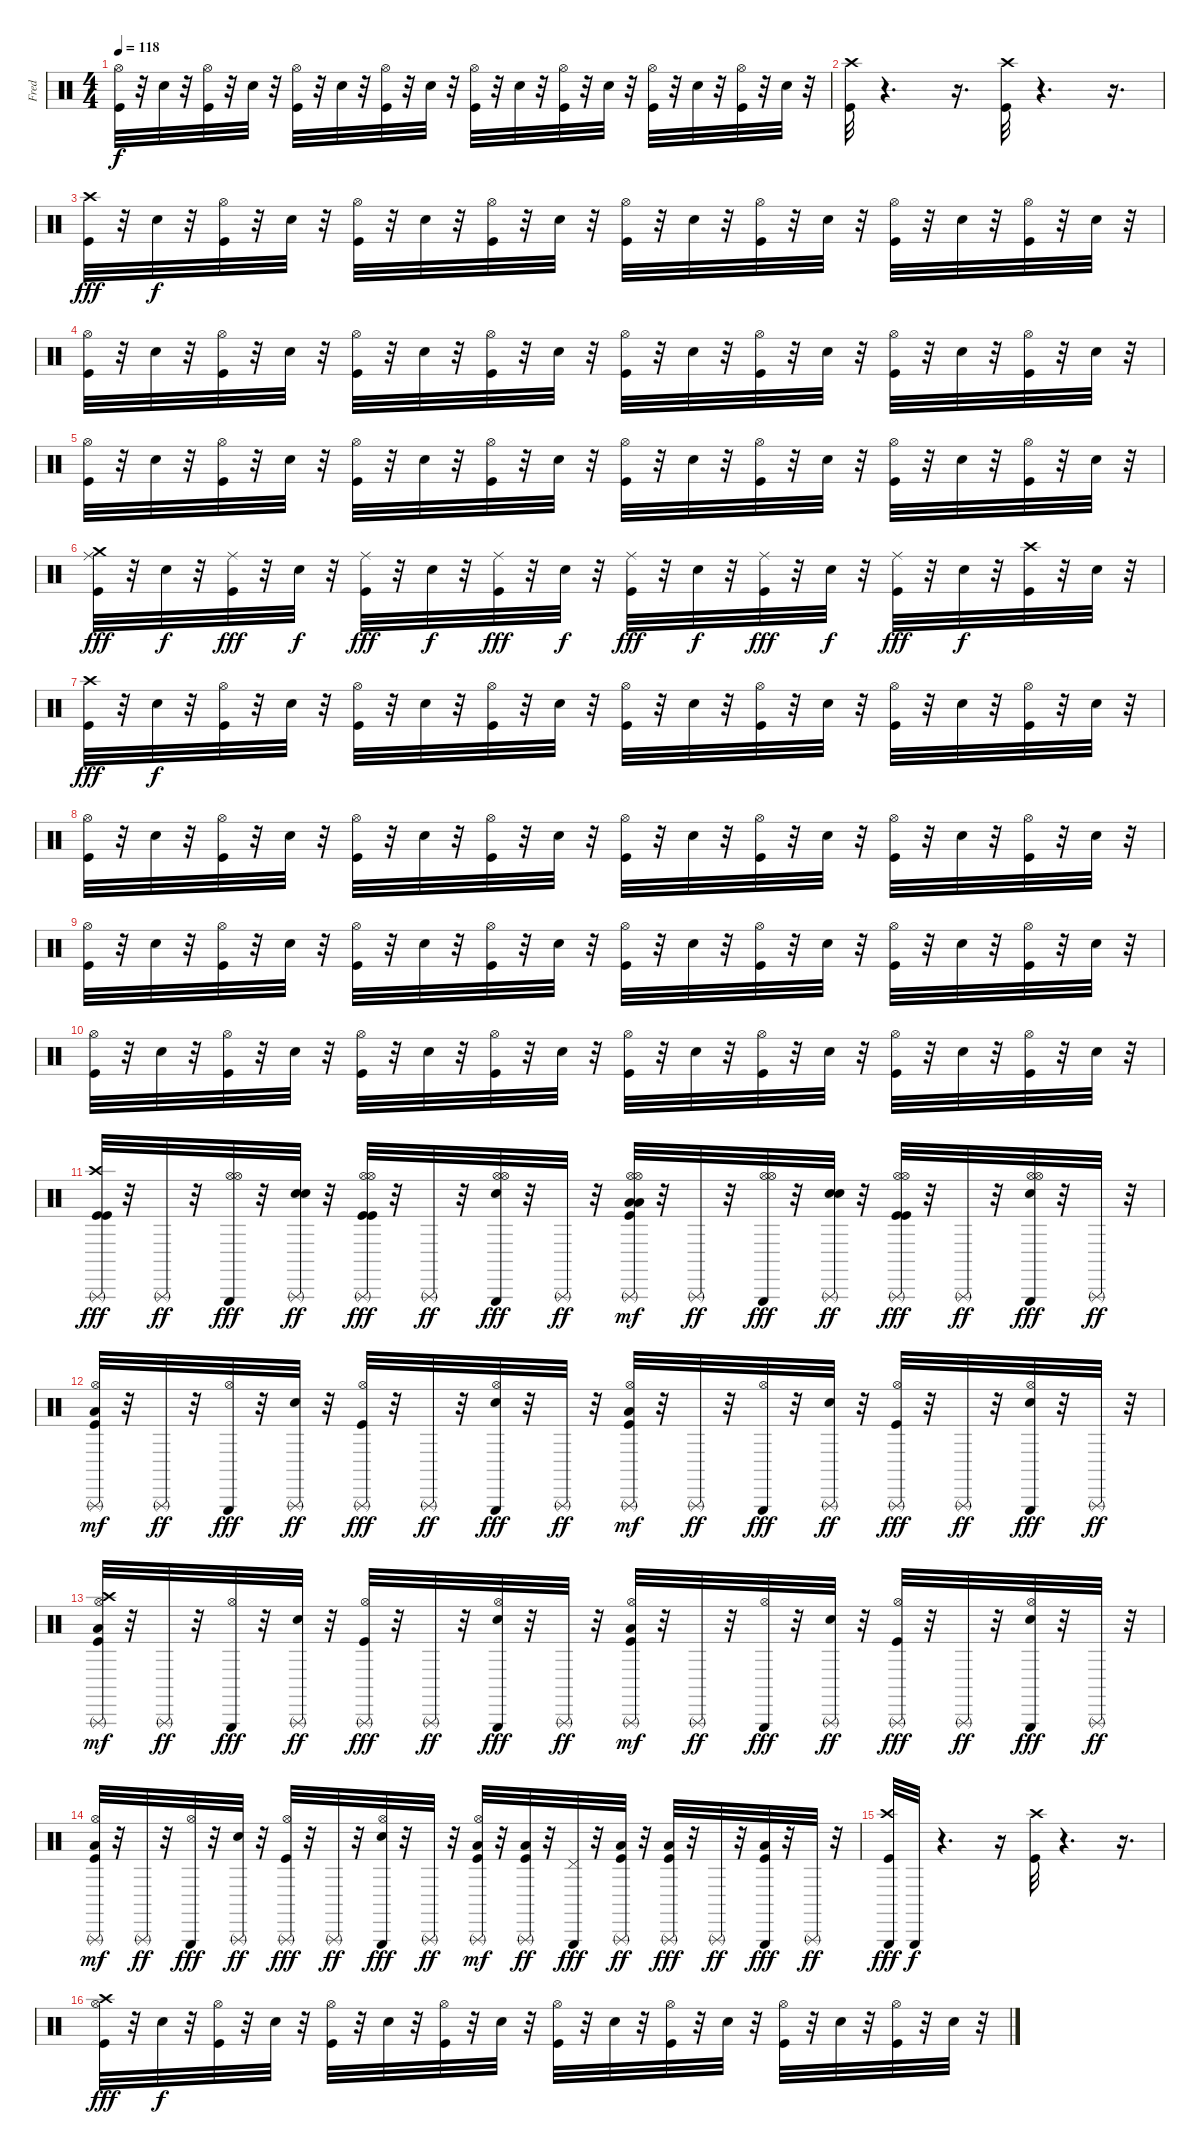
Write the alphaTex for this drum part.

\track ("Fred" "Fred") {instrument percussion}
\staff {score}
\articulation defaults
\ts (4 4)
\tempo 118
\clef neutral
\ks c
("Hi-Hat (open)" "Kick (hit)").32{dy f} r.32 "Electric Snare (hit)".32 r.32 ("Hi-Hat (open)" "Kick (hit)").32 r.32 "Electric Snare (hit)".32 r.32 ("Hi-Hat (open)" "Kick (hit)").32 r.32 "Electric Snare (hit)".32 r.32 ("Hi-Hat (open)" "Kick (hit)").32 r.32 "Electric Snare (hit)".32 r.32 ("Hi-Hat (open)" "Kick (hit)").32 r.32 "Electric Snare (hit)".32 r.32 ("Hi-Hat (open)" "Kick (hit)").32 r.32 "Electric Snare (hit)".32 r.32 ("Hi-Hat (open)" "Kick (hit)").32 r.32 "Electric Snare (hit)".32 r.32 ("Hi-Hat (open)" "Kick (hit)").32 r.32 "Electric Snare (hit)".32 r.32 |
("Crash high (hit)" "Kick (hit)").32 r.4{d} r.16{d} ("Crash high (hit)" "Kick (hit)").32 r.4{d} r.16{d} |
("Crash high (hit)" "Kick (hit)").32{dy fff} r.32 "Electric Snare (hit)".32{dy f} r.32 ("Hi-Hat (open)" "Kick (hit)").32 r.32 "Electric Snare (hit)".32 r.32 ("Hi-Hat (open)" "Kick (hit)").32 r.32 "Electric Snare (hit)".32 r.32 ("Hi-Hat (open)" "Kick (hit)").32 r.32 "Electric Snare (hit)".32 r.32 ("Hi-Hat (open)" "Kick (hit)").32 r.32 "Electric Snare (hit)".32 r.32 ("Hi-Hat (open)" "Kick (hit)").32 r.32 "Electric Snare (hit)".32 r.32 ("Hi-Hat (open)" "Kick (hit)").32 r.32 "Electric Snare (hit)".32 r.32 ("Hi-Hat (open)" "Kick (hit)").32 r.32 "Electric Snare (hit)".32 r.32 |
("Hi-Hat (open)" "Kick (hit)").32 r.32 "Electric Snare (hit)".32 r.32 ("Hi-Hat (open)" "Kick (hit)").32 r.32 "Electric Snare (hit)".32 r.32 ("Hi-Hat (open)" "Kick (hit)").32 r.32 "Electric Snare (hit)".32 r.32 ("Hi-Hat (open)" "Kick (hit)").32 r.32 "Electric Snare (hit)".32 r.32 ("Hi-Hat (open)" "Kick (hit)").32 r.32 "Electric Snare (hit)".32 r.32 ("Hi-Hat (open)" "Kick (hit)").32 r.32 "Electric Snare (hit)".32 r.32 ("Hi-Hat (open)" "Kick (hit)").32 r.32 "Electric Snare (hit)".32 r.32 ("Hi-Hat (open)" "Kick (hit)").32 r.32 "Electric Snare (hit)".32 r.32 |
("Hi-Hat (open)" "Kick (hit)").32 r.32 "Electric Snare (hit)".32 r.32 ("Hi-Hat (open)" "Kick (hit)").32 r.32 "Electric Snare (hit)".32 r.32 ("Hi-Hat (open)" "Kick (hit)").32 r.32 "Electric Snare (hit)".32 r.32 ("Hi-Hat (open)" "Kick (hit)").32 r.32 "Electric Snare (hit)".32 r.32 ("Hi-Hat (open)" "Kick (hit)").32 r.32 "Electric Snare (hit)".32 r.32 ("Hi-Hat (open)" "Kick (hit)").32 r.32 "Electric Snare (hit)".32 r.32 ("Hi-Hat (open)" "Kick (hit)").32 r.32 "Electric Snare (hit)".32 r.32 ("Hi-Hat (open)" "Kick (hit)").32 r.32 "Electric Snare (hit)".32 r.32 |
("Crash medium (hit)" "Ride (middle)" "Kick (hit)").32{dy fff} r.32 "Electric Snare (hit)".32{dy f} r.32 ("Ride (middle)" "Kick (hit)").32{dy fff} r.32 "Electric Snare (hit)".32{dy f} r.32 ("Ride (middle)" "Kick (hit)").32{dy fff} r.32 "Electric Snare (hit)".32{dy f} r.32 ("Ride (middle)" "Kick (hit)").32{dy fff} r.32 "Electric Snare (hit)".32{dy f} r.32 ("Ride (middle)" "Kick (hit)").32{dy fff} r.32 "Electric Snare (hit)".32{dy f} r.32 ("Ride (middle)" "Kick (hit)").32{dy fff} r.32 "Electric Snare (hit)".32{dy f} r.32 ("Ride (middle)" "Kick (hit)").32{dy fff} r.32 "Electric Snare (hit)".32{dy f} r.32 ("Crash high (hit)" "Kick (hit)").32 r.32 "Electric Snare (hit)".32 r.32 |
("Crash high (hit)" "Kick (hit)").32{dy fff} r.32 "Electric Snare (hit)".32{dy f} r.32 ("Hi-Hat (open)" "Kick (hit)").32 r.32 "Electric Snare (hit)".32 r.32 ("Hi-Hat (open)" "Kick (hit)").32 r.32 "Electric Snare (hit)".32 r.32 ("Hi-Hat (open)" "Kick (hit)").32 r.32 "Electric Snare (hit)".32 r.32 ("Hi-Hat (open)" "Kick (hit)").32 r.32 "Electric Snare (hit)".32 r.32 ("Hi-Hat (open)" "Kick (hit)").32 r.32 "Electric Snare (hit)".32 r.32 ("Hi-Hat (open)" "Kick (hit)").32 r.32 "Electric Snare (hit)".32 r.32 ("Hi-Hat (open)" "Kick (hit)").32 r.32 "Electric Snare (hit)".32 r.32 |
("Hi-Hat (open)" "Kick (hit)").32 r.32 "Electric Snare (hit)".32 r.32 ("Hi-Hat (open)" "Kick (hit)").32 r.32 "Electric Snare (hit)".32 r.32 ("Hi-Hat (open)" "Kick (hit)").32 r.32 "Electric Snare (hit)".32 r.32 ("Hi-Hat (open)" "Kick (hit)").32 r.32 "Electric Snare (hit)".32 r.32 ("Hi-Hat (open)" "Kick (hit)").32 r.32 "Electric Snare (hit)".32 r.32 ("Hi-Hat (open)" "Kick (hit)").32 r.32 "Electric Snare (hit)".32 r.32 ("Hi-Hat (open)" "Kick (hit)").32 r.32 "Electric Snare (hit)".32 r.32 ("Hi-Hat (open)" "Kick (hit)").32 r.32 "Electric Snare (hit)".32 r.32 |
("Hi-Hat (open)" "Kick (hit)").32 r.32 "Electric Snare (hit)".32 r.32 ("Hi-Hat (open)" "Kick (hit)").32 r.32 "Electric Snare (hit)".32 r.32 ("Hi-Hat (open)" "Kick (hit)").32 r.32 "Electric Snare (hit)".32 r.32 ("Hi-Hat (open)" "Kick (hit)").32 r.32 "Electric Snare (hit)".32 r.32 ("Hi-Hat (open)" "Kick (hit)").32 r.32 "Electric Snare (hit)".32 r.32 ("Hi-Hat (open)" "Kick (hit)").32 r.32 "Electric Snare (hit)".32 r.32 ("Hi-Hat (open)" "Kick (hit)").32 r.32 "Electric Snare (hit)".32 r.32 ("Hi-Hat (open)" "Kick (hit)").32 r.32 "Electric Snare (hit)".32 r.32 |
("Hi-Hat (open)" "Kick (hit)").32 r.32 "Electric Snare (hit)".32 r.32 ("Hi-Hat (open)" "Kick (hit)").32 r.32 "Electric Snare (hit)".32 r.32 ("Hi-Hat (open)" "Kick (hit)").32 r.32 "Electric Snare (hit)".32 r.32 ("Hi-Hat (open)" "Kick (hit)").32 r.32 "Electric Snare (hit)".32 r.32 ("Hi-Hat (open)" "Kick (hit)").32 r.32 "Electric Snare (hit)".32 r.32 ("Hi-Hat (open)" "Kick (hit)").32 r.32 "Electric Snare (hit)".32 r.32 ("Hi-Hat (open)" "Kick (hit)").32 r.32 "Electric Snare (hit)".32 r.32 ("Hi-Hat (open)" "Kick (hit)").32 r.32 "Electric Snare (hit)".32 r.32 |
("Crash high (hit)" "Triangle (rnute)" "Kick (hit)" "Kick (hit)").32{dy fff} r.32 "Triangle (rnute)".32{dy ff} r.32 ("Triangle (hit)" "Hi-Hat (open)" "Hi-Hat (open)").32{dy fff} r.32 ("Triangle (rnute)" "Electric Snare (hit)" "Electric Snare (hit)").32{dy ff} r.32 ("Triangle (rnute)" "Hi-Hat (open)" "Kick (hit)" "Hi-Hat (open)" "Kick (hit)").32{dy fff} r.32 "Triangle (rnute)".32{dy ff} r.32 ("Triangle (hit)" "Hi-Hat (open)" "Electric Snare (hit)" "Hi-Hat (open)").32{dy fff} r.32 "Triangle (rnute)".32{dy ff} r.32 ("Triangle (rnute)" "Hi-Hat (open)" "Low Tom (hit)" "Kick (hit)" "Hi-Hat (open)" "Low Tom (hit)").32{dy mf} r.32 "Triangle (rnute)".32{dy ff} r.32 ("Triangle (hit)" "Hi-Hat (open)" "Hi-Hat (open)").32{dy fff} r.32 ("Triangle (rnute)" "Electric Snare (hit)" "Electric Snare (hit)").32{dy ff} r.32 ("Triangle (rnute)" "Hi-Hat (open)" "Kick (hit)" "Hi-Hat (open)" "Kick (hit)").32{dy fff} r.32 "Triangle (rnute)".32{dy ff} r.32 ("Triangle (hit)" "Hi-Hat (open)" "Electric Snare (hit)" "Hi-Hat (open)").32{dy fff} r.32 "Triangle (rnute)".32{dy ff} r.32 |
("Triangle (rnute)" "Hi-Hat (open)" "Low Tom (hit)" "Kick (hit)").32{dy mf} r.32 "Triangle (rnute)".32{dy ff} r.32 ("Triangle (hit)" "Hi-Hat (open)").32{dy fff} r.32 ("Triangle (rnute)" "Electric Snare (hit)").32{dy ff} r.32 ("Triangle (rnute)" "Hi-Hat (open)" "Kick (hit)").32{dy fff} r.32 "Triangle (rnute)".32{dy ff} r.32 ("Triangle (hit)" "Electric Snare (hit)" "Hi-Hat (open)").32{dy fff} r.32 "Triangle (rnute)".32{dy ff} r.32 ("Triangle (rnute)" "Hi-Hat (open)" "Low Tom (hit)" "Kick (hit)").32{dy mf} r.32 "Triangle (rnute)".32{dy ff} r.32 ("Triangle (hit)" "Hi-Hat (open)").32{dy fff} r.32 ("Triangle (rnute)" "Electric Snare (hit)").32{dy ff} r.32 ("Triangle (rnute)" "Hi-Hat (open)" "Kick (hit)").32{dy fff} r.32 "Triangle (rnute)".32{dy ff} r.32 ("Triangle (hit)" "Electric Snare (hit)" "Hi-Hat (open)").32{dy fff} r.32 "Triangle (rnute)".32{dy ff} r.32 |
("Crash high (hit)" "Triangle (rnute)" "Hi-Hat (open)" "Low Tom (hit)" "Kick (hit)").32{dy mf} r.32 "Triangle (rnute)".32{dy ff} r.32 ("Triangle (hit)" "Hi-Hat (open)").32{dy fff} r.32 ("Triangle (rnute)" "Electric Snare (hit)").32{dy ff} r.32 ("Triangle (rnute)" "Hi-Hat (open)" "Kick (hit)").32{dy fff} r.32 "Triangle (rnute)".32{dy ff} r.32 ("Triangle (hit)" "Electric Snare (hit)" "Hi-Hat (open)").32{dy fff} r.32 "Triangle (rnute)".32{dy ff} r.32 ("Triangle (rnute)" "Hi-Hat (open)" "Low Tom (hit)" "Kick (hit)").32{dy mf} r.32 "Triangle (rnute)".32{dy ff} r.32 ("Triangle (hit)" "Hi-Hat (open)").32{dy fff} r.32 ("Triangle (rnute)" "Electric Snare (hit)").32{dy ff} r.32 ("Triangle (rnute)" "Hi-Hat (open)" "Kick (hit)").32{dy fff} r.32 "Triangle (rnute)".32{dy ff} r.32 ("Triangle (hit)" "Electric Snare (hit)" "Hi-Hat (open)").32{dy fff} r.32 "Triangle (rnute)".32{dy ff} r.32 |
("Triangle (rnute)" "Hi-Hat (open)" "Low Tom (hit)" "Kick (hit)").32{dy mf} r.32 "Triangle (rnute)".32{dy ff} r.32 ("Triangle (hit)" "Hi-Hat (open)").32{dy fff} r.32 ("Triangle (rnute)" "Electric Snare (hit)").32{dy ff} r.32 ("Triangle (rnute)" "Hi-Hat (open)" "Kick (hit)").32{dy fff} r.32 "Triangle (rnute)".32{dy ff} r.32 ("Triangle (hit)" "Electric Snare (hit)" "Hi-Hat (open)").32{dy fff} r.32 "Triangle (rnute)".32{dy ff} r.32 ("Triangle (rnute)" "Hi-Hat (open)" "Low Tom (hit)" "Kick (hit)").32{dy mf} r.32 ("Kick (hit)" "Low Tom (hit)" "Triangle (rnute)").32{dy ff} r.32 ("Pedal Hi-Hat (hit)" "Triangle (hit)").32{dy fff} r.32 ("Kick (hit)" "Low Tom (hit)" "Triangle (rnute)").32{dy ff} r.32 ("Low Tom (hit)" "Triangle (rnute)" "Kick (hit)").32{dy fff} r.32 "Triangle (rnute)".32{dy ff} r.32 ("Kick (hit)" "Low Tom (hit)" "Triangle (hit)").32{dy fff} r.32 "Triangle (rnute)".32{dy ff} r.32 |
("Triangle (hit)" "Crash high (hit)" "Kick (hit)").32{dy fff} "Triangle (hit)".32{dy f} r.4{d} r.16 ("Crash high (hit)" "Kick (hit)").32 r.4{d} r.16{d} |
("Crash high (hit)" "Hi-Hat (open)" "Kick (hit)").32{dy fff} r.32 "Electric Snare (hit)".32{dy f} r.32 ("Hi-Hat (open)" "Kick (hit)").32 r.32 "Electric Snare (hit)".32 r.32 ("Hi-Hat (open)" "Kick (hit)").32 r.32 "Electric Snare (hit)".32 r.32 ("Hi-Hat (open)" "Kick (hit)").32 r.32 "Electric Snare (hit)".32 r.32 ("Hi-Hat (open)" "Kick (hit)").32 r.32 "Electric Snare (hit)".32 r.32 ("Hi-Hat (open)" "Kick (hit)").32 r.32 "Electric Snare (hit)".32 r.32 ("Hi-Hat (open)" "Kick (hit)").32 r.32 "Electric Snare (hit)".32 r.32 ("Hi-Hat (open)" "Kick (hit)").32 r.32 "Electric Snare (hit)".32 r.32
